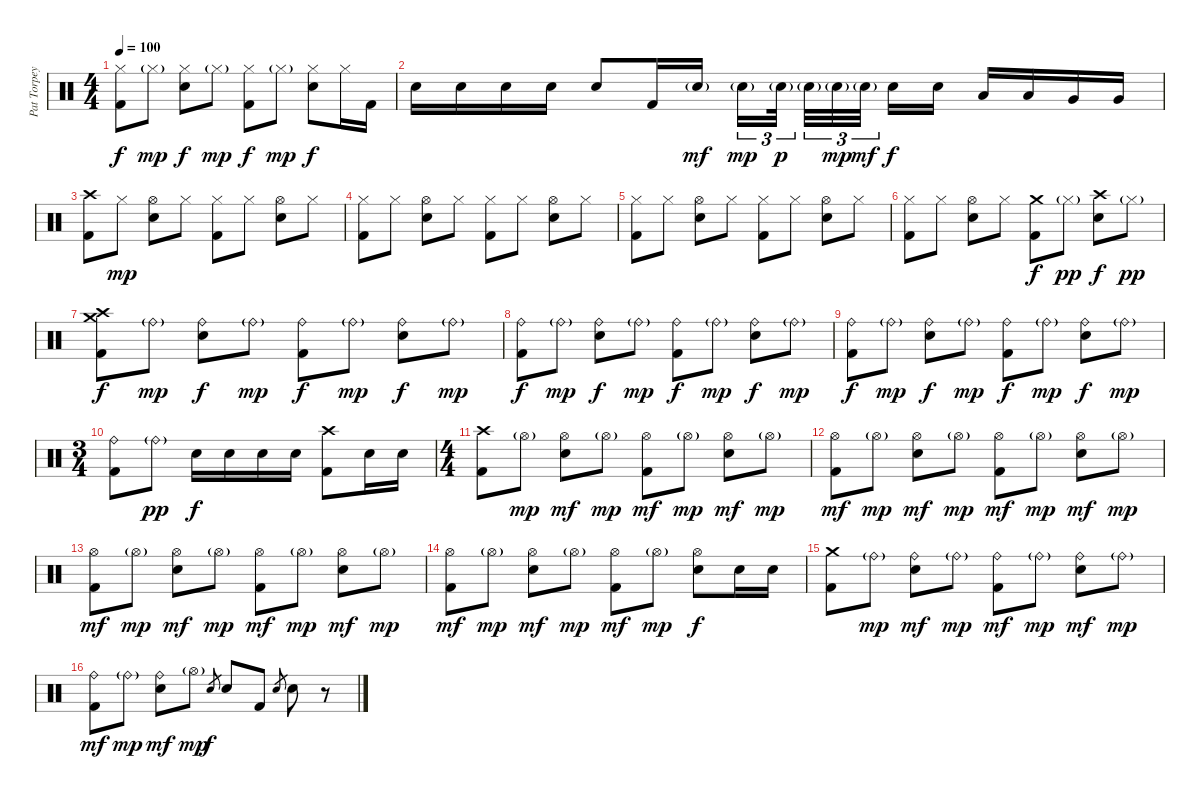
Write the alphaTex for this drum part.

\track ("Pat Torpey" "Pat Torpey") {instrument percussion}
\staff {score}
\articulation defaults
\ts (4 4)
\tempo 100
\clef neutral
\ks c
("Hi-Hat (closed)" "Kick (hit) 2").8{dy f} "Hi-Hat (closed)"{g}.8{dy mp} ("Hi-Hat (closed)" "Electric Snare (hit)").8{dy f} "Hi-Hat (closed)"{g}.8{dy mp} ("Hi-Hat (closed)" "Kick (hit) 2").8{dy f} "Hi-Hat (closed)"{g}.8{dy mp} ("Hi-Hat (closed)" "Electric Snare (hit)").8{dy f} "Hi-Hat (closed)".16 "Kick (hit) 2".16 |
"Electric Snare (hit)".16 "Electric Snare (hit)".16 "Electric Snare (hit)".16 "Electric Snare (hit)".16 "Electric Snare (hit)".8 "Kick (hit) 2".16 "Electric Snare (hit)"{g}.16{dy mf} "Electric Snare (hit)"{g}.16{tu (3 2) dy mp} "Electric Snare (hit)"{g}.32{tu (3 2) dy p beam splitsecondary} "Electric Snare (hit)"{g}.32{tu (3 2)} "Electric Snare (hit)"{g}.32{tu (3 2) dy mp} "Electric Snare (hit)"{g}.32{tu (3 2) dy mf beam splitsecondary} "Electric Snare (hit)".16{dy f} "Electric Snare (hit)".16 "Low Tom (hit)".16 "Low Tom (hit)".16 "Very Low Tom (hit)".16 "Very Low Tom (hit)".16 |
("Crash high (hit)" "Kick (hit) 2").8 "Hi-Hat (closed)".8{dy mp} ("Hi-Hat (open)" "Electric Snare (hit)").8 "Hi-Hat (closed)".8 ("Hi-Hat (closed)" "Kick (hit) 2").8 "Hi-Hat (closed)".8 ("Hi-Hat (open)" "Electric Snare (hit)").8 "Hi-Hat (closed)".8 |
("Hi-Hat (closed)" "Kick (hit) 2").8 "Hi-Hat (closed)".8 ("Hi-Hat (open)" "Electric Snare (hit)").8 "Hi-Hat (closed)".8 ("Hi-Hat (closed)" "Kick (hit) 2").8 "Hi-Hat (closed)".8 ("Hi-Hat (open)" "Electric Snare (hit)").8 "Hi-Hat (closed)".8 |
("Hi-Hat (closed)" "Kick (hit) 2").8 "Hi-Hat (closed)".8 ("Hi-Hat (open)" "Electric Snare (hit)").8 "Hi-Hat (closed)".8 ("Hi-Hat (closed)" "Kick (hit) 2").8 "Hi-Hat (closed)".8 ("Hi-Hat (open)" "Electric Snare (hit)").8 "Hi-Hat (closed)".8 |
("Hi-Hat (closed)" "Kick (hit) 2").8 "Hi-Hat (closed)".8 ("Hi-Hat (open)" "Electric Snare (hit)").8 "Hi-Hat (closed)".8 ("Crash medium (hit)" "Kick (hit) 2").8{dy f} "Hi-Hat (closed)"{g}.8{dy pp} ("Crash high (hit)" "Electric Snare (hit)").8{dy f} "Hi-Hat (closed)"{g}.8{dy pp} |
("Crash high (hit)" "Crash medium (hit)" "Kick (hit) 2").8{dy f} "Ride (bell)"{g}.8{dy mp} ("Ride (bell)" "Electric Snare (hit)").8{dy f} "Ride (bell)"{g}.8{dy mp} ("Ride (bell)" "Kick (hit) 2").8{dy f} "Ride (bell)"{g}.8{dy mp} ("Ride (bell)" "Electric Snare (hit)").8{dy f} "Ride (bell)"{g}.8{dy mp} |
("Ride (bell)" "Kick (hit) 2").8{dy f} "Ride (bell)"{g}.8{dy mp} ("Ride (bell)" "Electric Snare (hit)").8{dy f} "Ride (bell)"{g}.8{dy mp} ("Ride (bell)" "Kick (hit) 2").8{dy f} "Ride (bell)"{g}.8{dy mp} ("Ride (bell)" "Electric Snare (hit)").8{dy f} "Ride (bell)"{g}.8{dy mp} |
("Ride (bell)" "Kick (hit) 2").8{dy f} "Ride (bell)"{g}.8{dy mp} ("Ride (bell)" "Electric Snare (hit)").8{dy f} "Ride (bell)"{g}.8{dy mp} ("Ride (bell)" "Kick (hit) 2").8{dy f} "Ride (bell)"{g}.8{dy mp} ("Ride (bell)" "Electric Snare (hit)").8{dy f} "Ride (bell)"{g}.8{dy mp} |
\ts (3 4)
("Ride (bell)" "Kick (hit) 2").8 "Ride (bell)"{g}.8{dy pp} "Electric Snare (hit)".16{dy f} "Electric Snare (hit)".16 "Electric Snare (hit)".16 "Electric Snare (hit)".16 ("Crash high (hit)" "Kick (hit) 2").8 "Electric Snare (hit)".16 "Electric Snare (hit)".16 |
\ts (4 4)
("Crash high (hit)" "Kick (hit) 2").8 "Hi-Hat (open)"{g}.8{dy mp} ("Hi-Hat (open)" "Electric Snare (hit)").8{dy mf} "Hi-Hat (open)"{g}.8{dy mp} ("Hi-Hat (open)" "Kick (hit) 2").8{dy mf} "Hi-Hat (open)"{g}.8{dy mp} ("Hi-Hat (open)" "Electric Snare (hit)").8{dy mf} "Hi-Hat (open)"{g}.8{dy mp} |
("Hi-Hat (open)" "Kick (hit) 2").8{dy mf} "Hi-Hat (open)"{g}.8{dy mp} ("Hi-Hat (open)" "Electric Snare (hit)").8{dy mf} "Hi-Hat (open)"{g}.8{dy mp} ("Hi-Hat (open)" "Kick (hit) 2").8{dy mf} "Hi-Hat (open)"{g}.8{dy mp} ("Hi-Hat (open)" "Electric Snare (hit)").8{dy mf} "Hi-Hat (open)"{g}.8{dy mp} |
("Hi-Hat (open)" "Kick (hit) 2").8{dy mf} "Hi-Hat (open)"{g}.8{dy mp} ("Hi-Hat (open)" "Electric Snare (hit)").8{dy mf} "Hi-Hat (open)"{g}.8{dy mp} ("Hi-Hat (open)" "Kick (hit) 2").8{dy mf} "Hi-Hat (open)"{g}.8{dy mp} ("Hi-Hat (open)" "Electric Snare (hit)").8{dy mf} "Hi-Hat (open)"{g}.8{dy mp} |
("Hi-Hat (open)" "Kick (hit) 2").8{dy mf} "Hi-Hat (open)"{g}.8{dy mp} ("Hi-Hat (open)" "Electric Snare (hit)").8{dy mf} "Hi-Hat (open)"{g}.8{dy mp} ("Hi-Hat (open)" "Kick (hit) 2").8{dy mf} "Hi-Hat (open)"{g}.8{dy mp} ("Hi-Hat (open)" "Electric Snare (hit)").8{dy f} "Electric Snare (hit)".16 "Electric Snare (hit)".16 |
("Crash medium (hit)" "Kick (hit) 2").8 "Ride (bell)"{g}.8{dy mp} ("Ride (bell)" "Electric Snare (hit)").8{dy mf} "Ride (bell)"{g}.8{dy mp} ("Ride (bell)" "Kick (hit) 2").8{dy mf} "Ride (bell)"{g}.8{dy mp} ("Ride (bell)" "Electric Snare (hit)").8{dy mf} "Ride (bell)"{g}.8{dy mp} |
("Ride (bell)" "Kick (hit) 2").8{dy mf} "Ride (bell)"{g}.8{dy mp} ("Ride (bell)" "Electric Snare (hit)").8{dy mf} "Hi-Hat (open)"{g}.8{dy mp} "Electric Snare (hit)".8{gr dy f} "Electric Snare (hit)".8 "Kick (hit) 2".8 "Electric Snare (hit)".8{gr} "Electric Snare (hit)".8 r.8
